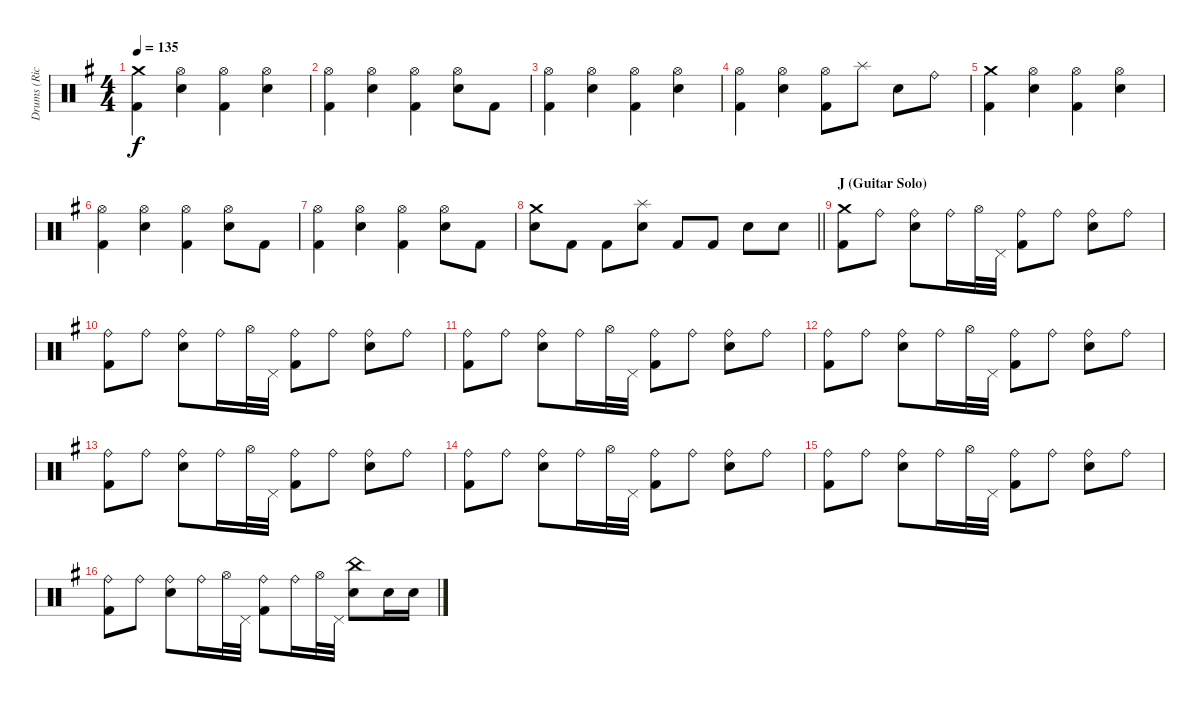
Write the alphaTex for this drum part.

\track ("Drums (Richard Evensand)" "Drums (Ric") {instrument percussion}
\staff {score}
\articulation defaults
\ts (4 4)
\tempo 135
\clef neutral
\ks eminor
("Crash medium (hit)" "Kick (hit) 2").4{dy f} ("Hi-Hat (open)" "Electric Snare (hit)").4 ("Hi-Hat (open)" "Kick (hit) 2").4 ("Hi-Hat (open)" "Electric Snare (hit)").4 |
("Hi-Hat (open)" "Kick (hit) 2").4 ("Hi-Hat (open)" "Electric Snare (hit)").4 ("Hi-Hat (open)" "Kick (hit) 2").4 ("Hi-Hat (open)" "Electric Snare (hit)").8 "Kick (hit) 2".8 |
("Hi-Hat (open)" "Kick (hit) 2").4 ("Hi-Hat (open)" "Electric Snare (hit)").4 ("Hi-Hat (open)" "Kick (hit) 2").4 ("Hi-Hat (open)" "Electric Snare (hit)").4 |
("Hi-Hat (open)" "Kick (hit) 2").4 ("Hi-Hat (open)" "Electric Snare (hit)").4 ("Hi-Hat (open)" "Kick (hit) 2").8 "Splash (hit)".8 "Electric Snare (hit)".8 "Ride (bell)".8 |
("Crash medium (hit)" "Kick (hit) 2").4 ("Hi-Hat (open)" "Electric Snare (hit)").4 ("Hi-Hat (open)" "Kick (hit) 2").4 ("Hi-Hat (open)" "Electric Snare (hit)").4 |
("Hi-Hat (open)" "Kick (hit) 2").4 ("Hi-Hat (open)" "Electric Snare (hit)").4 ("Hi-Hat (open)" "Kick (hit) 2").4 ("Hi-Hat (open)" "Electric Snare (hit)").8 "Kick (hit) 2".8 |
("Hi-Hat (open)" "Kick (hit) 2").4 ("Hi-Hat (open)" "Electric Snare (hit)").4 ("Hi-Hat (open)" "Kick (hit) 2").4 ("Hi-Hat (open)" "Electric Snare (hit)").8 "Kick (hit) 2".8 |
\barLineRight lightlight
("Crash medium (hit)" "Electric Snare (hit)").8 "Kick (hit) 2".8 "Kick (hit) 2".8 ("Splash (hit)" "Electric Snare (hit)").8 "Kick (hit) 2".8 "Kick (hit) 2".8 "Electric Snare (hit)".8 "Electric Snare (hit)".8 |
\section ("" "J (Guitar Solo)")
("Crash medium (hit)" "Kick (hit) 2").8 "Ride (bell)".8 ("Ride (bell)" "Electric Snare (hit)").8 "Ride (bell)".16 "Hi-Hat (open)".32 "Pedal Hi-Hat (hit)".32 ("Ride (bell)" "Kick (hit) 2").8 "Ride (bell)".8 ("Ride (bell)" "Electric Snare (hit)").8 "Ride (bell)".8 |
("Ride (bell)" "Kick (hit) 2").8 "Ride (bell)".8 ("Ride (bell)" "Electric Snare (hit)").8 "Ride (bell)".16 "Hi-Hat (open)".32 "Pedal Hi-Hat (hit)".32 ("Ride (bell)" "Kick (hit) 2").8 "Ride (bell)".8 ("Ride (bell)" "Electric Snare (hit)").8 "Ride (bell)".8 |
("Ride (bell)" "Kick (hit) 2").8 "Ride (bell)".8 ("Ride (bell)" "Electric Snare (hit)").8 "Ride (bell)".16 "Hi-Hat (open)".32 "Pedal Hi-Hat (hit)".32 ("Ride (bell)" "Kick (hit) 2").8 "Ride (bell)".8 ("Ride (bell)" "Electric Snare (hit)").8 "Ride (bell)".8 |
("Ride (bell)" "Kick (hit) 2").8 "Ride (bell)".8 ("Ride (bell)" "Electric Snare (hit)").8 "Ride (bell)".16 "Hi-Hat (open)".32 "Pedal Hi-Hat (hit)".32 ("Ride (bell)" "Kick (hit) 2").8 "Ride (bell)".8 ("Ride (bell)" "Electric Snare (hit)").8 "Ride (bell)".8 |
("Ride (bell)" "Kick (hit) 2").8 "Ride (bell)".8 ("Ride (bell)" "Electric Snare (hit)").8 "Ride (bell)".16 "Hi-Hat (open)".32 "Pedal Hi-Hat (hit)".32 ("Ride (bell)" "Kick (hit) 2").8 "Ride (bell)".8 ("Ride (bell)" "Electric Snare (hit)").8 "Ride (bell)".8 |
("Ride (bell)" "Kick (hit) 2").8 "Ride (bell)".8 ("Ride (bell)" "Electric Snare (hit)").8 "Ride (bell)".16 "Hi-Hat (open)".32 "Pedal Hi-Hat (hit)".32 ("Ride (bell)" "Kick (hit) 2").8 "Ride (bell)".8 ("Ride (bell)" "Electric Snare (hit)").8 "Ride (bell)".8 |
("Ride (bell)" "Kick (hit) 2").8 "Ride (bell)".8 ("Ride (bell)" "Electric Snare (hit)").8 "Ride (bell)".16 "Hi-Hat (open)".32 "Pedal Hi-Hat (hit)".32 ("Ride (bell)" "Kick (hit) 2").8 "Ride (bell)".8 ("Ride (bell)" "Electric Snare (hit)").8 "Ride (bell)".8 |
("Ride (bell)" "Kick (hit) 2").8 "Ride (bell)".8 ("Ride (bell)" "Electric Snare (hit)").8 "Ride (bell)".16 "Hi-Hat (open)".32 "Pedal Hi-Hat (hit)".32 ("Ride (bell)" "Kick (hit) 2").8 "Ride (bell)".16 "Hi-Hat (open)".32 "Pedal Hi-Hat (hit)".32 ("China (hit)" "Electric Snare (hit)").8 "Electric Snare (hit)".16 "Electric Snare (hit)".16
